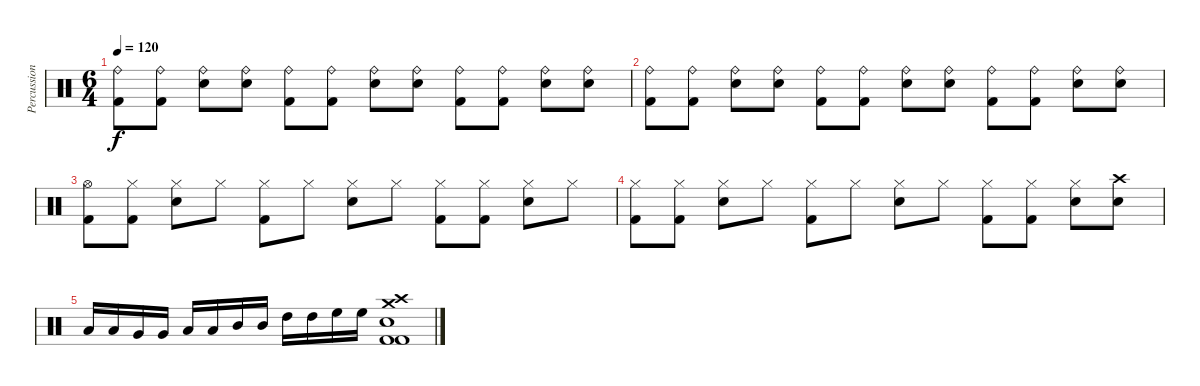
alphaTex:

\track ("Percussion" "Percussion") {instrument percussion}
\staff {score}
\articulation defaults
\ts (6 4)
\tempo 120
\clef neutral
\ks c
("Ride (bell)" "Kick (hit) 2").8{dy f} ("Ride (bell)" "Kick (hit) 2").8 ("Ride (bell)" "Electric Snare (hit)").8 ("Ride (bell)" "Electric Snare (hit)").8 ("Ride (bell)" "Kick (hit) 2").8 ("Ride (bell)" "Kick (hit) 2").8 ("Ride (bell)" "Electric Snare (hit)").8 ("Ride (bell)" "Electric Snare (hit)").8 ("Ride (bell)" "Kick (hit) 2").8 ("Ride (bell)" "Kick (hit) 2").8 ("Ride (bell)" "Electric Snare (hit)").8 ("Ride (bell)" "Electric Snare (hit)").8 |
("Ride (bell)" "Kick (hit) 2").8 ("Ride (bell)" "Kick (hit) 2").8 ("Ride (bell)" "Electric Snare (hit)").8 ("Ride (bell)" "Electric Snare (hit)").8 ("Ride (bell)" "Kick (hit) 2").8 ("Ride (bell)" "Kick (hit) 2").8 ("Ride (bell)" "Electric Snare (hit)").8 ("Ride (bell)" "Electric Snare (hit)").8 ("Ride (bell)" "Kick (hit) 2").8 ("Ride (bell)" "Kick (hit) 2").8 ("Ride (bell)" "Electric Snare (hit)").8 ("Ride (bell)" "Electric Snare (hit)").8 |
("Hi-Hat (open)" "Kick (hit) 2").8 ("Hi-Hat (closed)" "Kick (hit) 2").8 ("Hi-Hat (closed)" "Electric Snare (hit)").8 "Hi-Hat (closed)".8 ("Hi-Hat (closed)" "Kick (hit) 2").8 "Hi-Hat (closed)".8 ("Hi-Hat (closed)" "Electric Snare (hit)").8 "Hi-Hat (closed)".8 ("Hi-Hat (closed)" "Kick (hit) 2").8 ("Hi-Hat (closed)" "Kick (hit) 2").8 ("Hi-Hat (closed)" "Electric Snare (hit)").8 "Hi-Hat (closed)".8 |
("Hi-Hat (closed)" "Kick (hit) 2").8 ("Hi-Hat (closed)" "Kick (hit) 2").8 ("Hi-Hat (closed)" "Electric Snare (hit)").8 "Hi-Hat (closed)".8 ("Hi-Hat (closed)" "Kick (hit) 2").8 "Hi-Hat (closed)".8 ("Hi-Hat (closed)" "Electric Snare (hit)").8 "Hi-Hat (closed)".8 ("Hi-Hat (closed)" "Kick (hit) 2").8 ("Hi-Hat (closed)" "Kick (hit) 2").8 ("Hi-Hat (closed)" "Electric Snare (hit)").8 ("Crash high (hit)" "Electric Snare (hit)").8 |
"Low Floor Tom (hit)".16 "Low Floor Tom (hit)".16 "Very Low Tom (hit)".16 "Very Low Tom (hit)".16 "Low Tom (hit)".16 "Low Tom (hit)".16 "Mid Tom (hit)".16 "Mid Tom (hit)".16 "High Tom (hit)".16 "High Tom (hit)".16 "High Floor Tom (hit)".16 "High Floor Tom (hit)".16 ("Crash medium (hit)" "Crash high (hit)" "Snare (hit) 2" "Kick (hit) 2" "Kick (hit) 2").1
